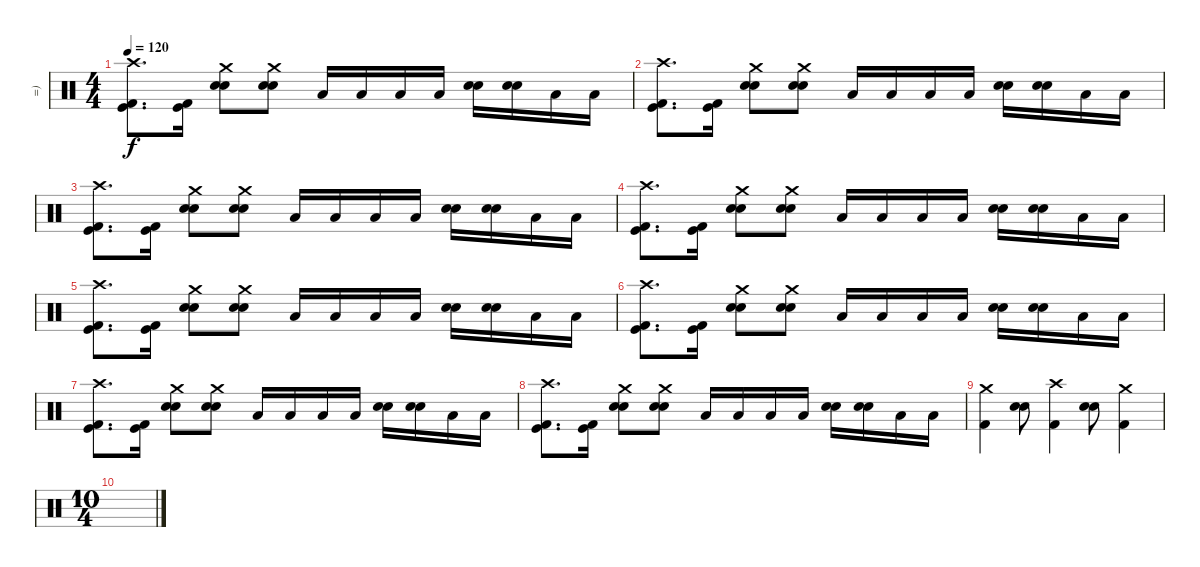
\track ("=)" "=)") {instrument percussion}
\staff {score}
\articulation defaults
\ts (4 4)
\tempo 120
\clef neutral
\ks c
("Crash high (hit)" "Kick (hit)" "Kick (hit) 2").8{d dy f} ("Kick (hit)" "Kick (hit) 2").16 ("Crash medium (hit)" "Snare (hit) 2" "Electric Snare (hit)").8 ("Crash medium (hit)" "Snare (hit) 2" "Electric Snare (hit)").8 "Low Floor Tom (hit)".16 "Low Tom (hit)".16 "Low Floor Tom (hit)".16 "Low Floor Tom (hit)".16 ("Snare (hit) 2" "Electric Snare (hit)").16 ("Snare (hit) 2" "Electric Snare (hit)").16 "Low Floor Tom (hit)".16 "Low Tom (hit)".16 |
("Crash high (hit)" "Kick (hit)" "Kick (hit) 2").8{d} ("Kick (hit)" "Kick (hit) 2").16 ("Crash medium (hit)" "Snare (hit) 2" "Electric Snare (hit)").8 ("Crash medium (hit)" "Snare (hit) 2" "Electric Snare (hit)").8 "Low Floor Tom (hit)".16 "Low Tom (hit)".16 "Low Floor Tom (hit)".16 "Low Floor Tom (hit)".16 ("Snare (hit) 2" "Electric Snare (hit)").16 ("Snare (hit) 2" "Electric Snare (hit)").16 "Low Floor Tom (hit)".16 "Low Tom (hit)".16 |
("Crash high (hit)" "Kick (hit)" "Kick (hit) 2").8{d} ("Kick (hit)" "Kick (hit) 2").16 ("Crash medium (hit)" "Snare (hit) 2" "Electric Snare (hit)").8 ("Crash medium (hit)" "Snare (hit) 2" "Electric Snare (hit)").8 "Low Floor Tom (hit)".16 "Low Tom (hit)".16 "Low Floor Tom (hit)".16 "Low Floor Tom (hit)".16 ("Snare (hit) 2" "Electric Snare (hit)").16 ("Snare (hit) 2" "Electric Snare (hit)").16 "Low Floor Tom (hit)".16 "Low Tom (hit)".16 |
("Crash high (hit)" "Kick (hit)" "Kick (hit) 2").8{d} ("Kick (hit)" "Kick (hit) 2").16 ("Crash medium (hit)" "Snare (hit) 2" "Electric Snare (hit)").8 ("Crash medium (hit)" "Snare (hit) 2" "Electric Snare (hit)").8 "Low Floor Tom (hit)".16 "Low Tom (hit)".16 "Low Floor Tom (hit)".16 "Low Floor Tom (hit)".16 ("Snare (hit) 2" "Electric Snare (hit)").16 ("Snare (hit) 2" "Electric Snare (hit)").16 "Low Floor Tom (hit)".16 "Low Tom (hit)".16 |
("Crash high (hit)" "Kick (hit)" "Kick (hit) 2").8{d} ("Kick (hit)" "Kick (hit) 2").16 ("Crash medium (hit)" "Snare (hit) 2" "Electric Snare (hit)").8 ("Crash medium (hit)" "Snare (hit) 2" "Electric Snare (hit)").8 "Low Floor Tom (hit)".16 "Low Tom (hit)".16 "Low Floor Tom (hit)".16 "Low Floor Tom (hit)".16 ("Snare (hit) 2" "Electric Snare (hit)").16 ("Snare (hit) 2" "Electric Snare (hit)").16 "Low Floor Tom (hit)".16 "Low Tom (hit)".16 |
("Crash high (hit)" "Kick (hit)" "Kick (hit) 2").8{d} ("Kick (hit)" "Kick (hit) 2").16 ("Crash medium (hit)" "Snare (hit) 2" "Electric Snare (hit)").8 ("Crash medium (hit)" "Snare (hit) 2" "Electric Snare (hit)").8 "Low Floor Tom (hit)".16 "Low Tom (hit)".16 "Low Floor Tom (hit)".16 "Low Floor Tom (hit)".16 ("Snare (hit) 2" "Electric Snare (hit)").16 ("Snare (hit) 2" "Electric Snare (hit)").16 "Low Floor Tom (hit)".16 "Low Tom (hit)".16 |
("Crash high (hit)" "Kick (hit)" "Kick (hit) 2").8{d} ("Kick (hit)" "Kick (hit) 2").16 ("Crash medium (hit)" "Snare (hit) 2" "Electric Snare (hit)").8 ("Crash medium (hit)" "Snare (hit) 2" "Electric Snare (hit)").8 "Low Floor Tom (hit)".16 "Low Tom (hit)".16 "Low Floor Tom (hit)".16 "Low Floor Tom (hit)".16 ("Snare (hit) 2" "Electric Snare (hit)").16 ("Snare (hit) 2" "Electric Snare (hit)").16 "Low Floor Tom (hit)".16 "Low Tom (hit)".16 |
("Crash high (hit)" "Kick (hit)" "Kick (hit) 2").8{d} ("Kick (hit)" "Kick (hit) 2").16 ("Crash medium (hit)" "Snare (hit) 2" "Electric Snare (hit)").8 ("Crash medium (hit)" "Snare (hit) 2" "Electric Snare (hit)").8 "Low Floor Tom (hit)".16 "Low Tom (hit)".16 "Low Floor Tom (hit)".16 "Low Floor Tom (hit)".16 ("Snare (hit) 2" "Electric Snare (hit)").16 ("Snare (hit) 2" "Electric Snare (hit)").16 "Low Floor Tom (hit)".16 "Low Tom (hit)".16 |
("Crash medium (hit)" "Kick (hit) 2").4 ("Snare (hit) 2" "Electric Snare (hit)").8 ("Crash high (hit)" "Kick (hit) 2").4 ("Snare (hit) 2" "Electric Snare (hit)").8 ("Crash medium (hit)" "Kick (hit) 2").4 |
\ts (10 4)
